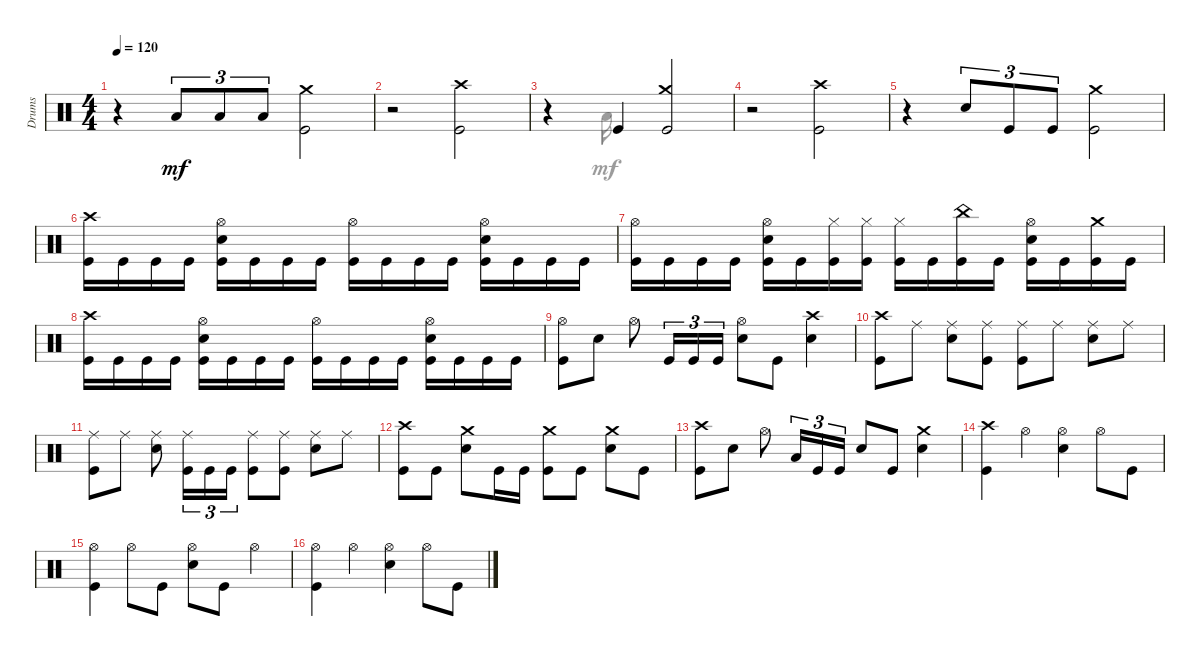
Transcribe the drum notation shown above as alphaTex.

\track ("Drums" "Drums") {instrument percussion}
\staff {score}
\articulation defaults
\voice
\ts (4 4)
\tempo 120
\clef neutral
\ks aminor
r.4{dy mf} "Low Floor Tom (hit)".8{tu (3 2)} "Low Floor Tom (hit)".8{tu (3 2)} "Low Floor Tom (hit)".8{tu (3 2)} ("Crash medium (hit)" "Kick (hit)").2 |
r.2 ("Kick (hit)" "Crash high (hit)").2 |
r.4 "Kick (hit)".4 ("Kick (hit)" "Crash medium (hit)").2 |
r.2 ("Crash high (hit)" "Kick (hit)").2 |
r.4 "Snare (hit) 2".8{tu (3 2)} "Kick (hit)".8{tu (3 2)} "Kick (hit)".8{tu (3 2)} ("Kick (hit)" "Crash medium (hit)").2 |
("Crash high (hit)" "Kick (hit)").16 "Kick (hit)".16 "Kick (hit)".16 "Kick (hit)".16 ("Kick (hit)" "Snare (hit) 2" "Hi-Hat (open)").16 "Kick (hit)".16 "Kick (hit)".16 "Kick (hit)".16 ("Hi-Hat (open)" "Kick (hit)").16 "Kick (hit)".16 "Kick (hit)".16 "Kick (hit)".16 ("Kick (hit)" "Hi-Hat (open)" "Snare (hit) 2").16 "Kick (hit)".16 "Kick (hit)".16 "Kick (hit)".16 |
("Hi-Hat (open)" "Kick (hit)").16 "Kick (hit)".16 "Kick (hit)".16 "Kick (hit)".16 ("Hi-Hat (open)" "Snare (hit) 2" "Kick (hit)").16 "Kick (hit)".16 ("Kick (hit)" "Hi-Hat (closed)").16 ("Kick (hit)" "Hi-Hat (closed)").16 ("Hi-Hat (closed)" "Kick (hit)").16 "Kick (hit)".16 ("China (hit)" "Kick (hit)").16 "Kick (hit)".16 ("Hi-Hat (open)" "Kick (hit)" "Snare (hit) 2").16 "Kick (hit)".16 ("Crash medium (hit)" "Kick (hit)").16 "Kick (hit)".16 |
("Crash high (hit)" "Kick (hit)").16 "Kick (hit)".16 "Kick (hit)".16 "Kick (hit)".16 ("Kick (hit)" "Snare (hit) 2" "Hi-Hat (open)").16 "Kick (hit)".16 "Kick (hit)".16 "Kick (hit)".16 ("Hi-Hat (open)" "Kick (hit)").16 "Kick (hit)".16 "Kick (hit)".16 "Kick (hit)".16 ("Snare (hit) 2" "Kick (hit)" "Hi-Hat (open)").16 "Kick (hit)".16 "Kick (hit)".16 "Kick (hit)".16 |
("Hi-Hat (open)" "Kick (hit)").8 "Snare (hit) 2".8 "Hi-Hat (open)".8 "Kick (hit)".16{tu (3 2)} "Kick (hit)".16{tu (3 2)} "Kick (hit)".16{tu (3 2)} ("Hi-Hat (open)" "Snare (hit) 2").8 "Kick (hit)".8 ("Snare (hit) 2" "Crash high (hit)").4 |
("Crash high (hit)" "Kick (hit)").8 "Ride (middle)".8 ("Ride (middle)" "Snare (hit) 2").8 ("Ride (middle)" "Kick (hit)").8 ("Ride (middle)" "Kick (hit)").8 "Ride (middle)".8 ("Snare (hit) 2" "Ride (middle)").8 "Ride (middle)".8 |
("Kick (hit)" "Ride (middle)").8 "Ride (middle)".8 ("Ride (middle)" "Snare (hit) 2").8 ("Ride (middle)" "Kick (hit)").16{tu (3 2)} "Kick (hit)".16{tu (3 2)} "Kick (hit)".16{tu (3 2)} ("Kick (hit)" "Ride (middle)").8 ("Kick (hit)" "Ride (middle)").8 ("Snare (hit) 2" "Ride (middle)").8 "Ride (middle)".8 |
("Kick (hit)" "Crash high (hit)").8 "Kick (hit)".8 ("Crash medium (hit)" "Snare (hit) 2").8 "Kick (hit)".16 "Kick (hit)".16 ("Crash medium (hit)" "Kick (hit)").8 "Kick (hit)".8 ("Snare (hit) 2" "Crash medium (hit)").8 "Kick (hit)".8 |
("Kick (hit)" "Crash high (hit)").8 "Snare (hit) 2".8 "Hi-Hat (open)".8 "Low Floor Tom (hit)".16{tu (3 2)} "Kick (hit)".16{tu (3 2)} "Kick (hit)".16{tu (3 2)} "Snare (hit) 2".8 "Kick (hit)".8 ("Crash medium (hit)" "Snare (hit) 2").4 |
("Crash high (hit)" "Kick (hit)").4 "Hi-Hat (open)".4 ("Hi-Hat (open)" "Snare (hit) 2").4 "Hi-Hat (open)".8 "Kick (hit)".8 |
("Hi-Hat (open)" "Kick (hit)").4 "Hi-Hat (open)".8 "Kick (hit)".8 ("Hi-Hat (open)" "Snare (hit) 2").8 "Kick (hit)".8 "Hi-Hat (open)".4 |
("Hi-Hat (open)" "Kick (hit)").4 "Hi-Hat (open)".4 ("Snare (hit) 2" "Hi-Hat (open)").4 "Hi-Hat (open)".8 "Kick (hit)".8
\voice
\clef neutral
\ottava regular
\simile none
\ks aminor
|
|
r.4 "Low Floor Tom (hit)".16 |
|
|
|
|
|
|
|
|
|
|
|
|
